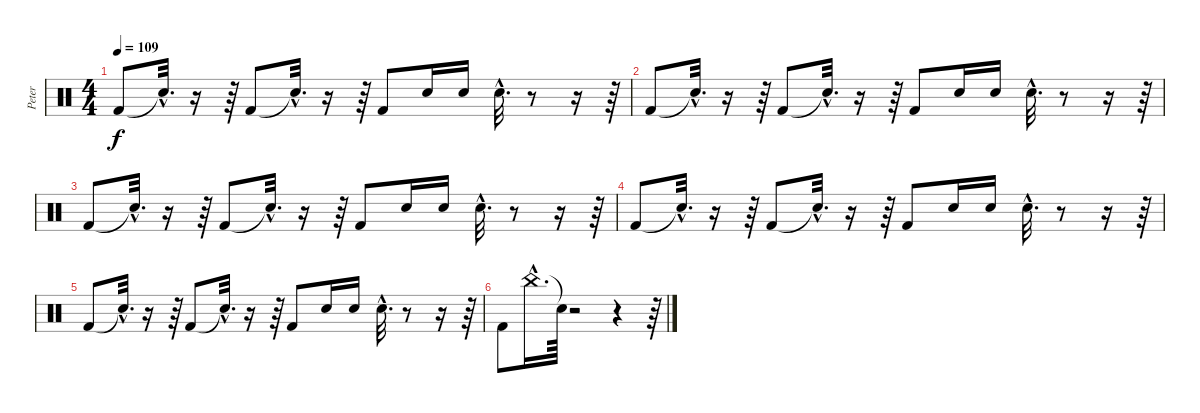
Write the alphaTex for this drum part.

\track ("Peter" "Peter") {instrument percussion}
\staff {score}
\articulation defaults
\ts (4 4)
\tempo 109
\clef neutral
\ks c "Kick (hit) 2".8{dy f} "Snare (hit)"{hac t}.32{d}
r.16 r.64 "Kick (hit) 2".8 "Snare (hit)"{hac t}.32{d} r.16 r.64 "Kick (hit) 2".8 "Electric Snare (hit)".16 "Electric Snare (hit)".16 "Electric Snare (hit)"{hac}.32{d} r.8 r.16 r.64 |
"Kick (hit) 2".8 "Snare (hit)"{hac t}.32{d} r.16 r.64 "Kick (hit) 2".8 "Snare (hit)"{hac t}.32{d} r.16 r.64 "Kick (hit) 2".8 "Electric Snare (hit)".16 "Electric Snare (hit)".16 "Electric Snare (hit)"{hac}.32{d} r.8 r.16 r.64 |
"Kick (hit) 2".8 "Snare (hit)"{hac t}.32{d} r.16 r.64 "Kick (hit) 2".8 "Snare (hit)"{hac t}.32{d} r.16 r.64 "Kick (hit) 2".8 "Electric Snare (hit)".16 "Electric Snare (hit)".16 "Electric Snare (hit)"{hac}.32{d} r.8 r.16 r.64 |
"Kick (hit) 2".8 "Snare (hit)"{hac t}.32{d} r.16 r.64 "Kick (hit) 2".8 "Snare (hit)"{hac t}.32{d} r.16 r.64 "Kick (hit) 2".8 "Electric Snare (hit)".16 "Electric Snare (hit)".16 "Electric Snare (hit)"{hac}.32{d} r.8 r.16 r.64 |
"Kick (hit) 2".8 "Snare (hit)"{hac t}.32{d} r.16 r.64 "Kick (hit) 2".8 "Snare (hit)"{hac t}.32{d} r.16 r.64 "Kick (hit) 2".8 "Electric Snare (hit)".16 "Electric Snare (hit)".16 "Electric Snare (hit)"{hac}.32{d} r.8 r.16 r.64 |
"Kick (hit) 2".8 "China (hit)"{hac}.16{d} "Snare (hit)"{t}.64 r.2 r.4 r.64
